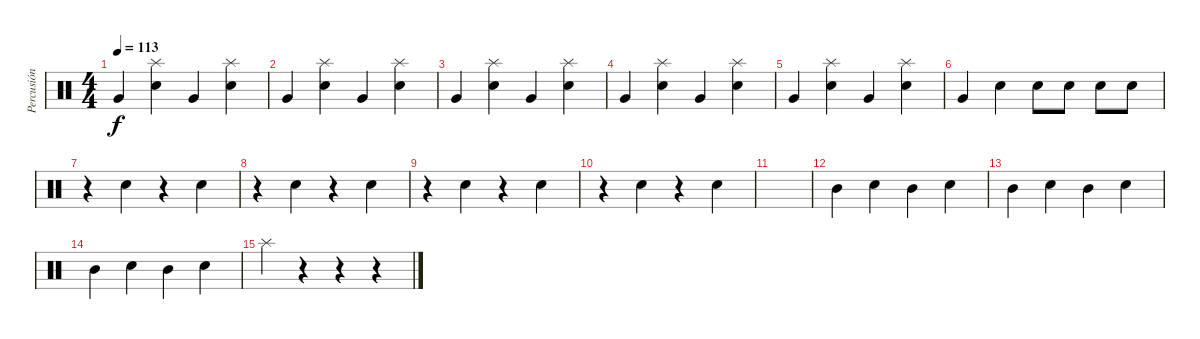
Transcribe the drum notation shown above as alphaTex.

\track ("Percusión" "Percusión") {instrument percussion}
\staff {score}
\articulation defaults
\ts (4 4)
\tempo 113
\clef neutral
\ks c "Very Low Tom (hit)".4{dy f}
("Snare (hit) 2" "Splash (hit)").4 "Very Low Tom (hit)".4 ("Snare (hit) 2" "Splash (hit)").4 |
"Very Low Tom (hit)".4 ("Snare (hit) 2" "Splash (hit)").4 "Very Low Tom (hit)".4 ("Snare (hit) 2" "Splash (hit)").4 |
"Very Low Tom (hit)".4 ("Snare (hit) 2" "Splash (hit)").4 "Very Low Tom (hit)".4 ("Snare (hit) 2" "Splash (hit)").4 |
"Very Low Tom (hit)".4 ("Snare (hit) 2" "Splash (hit)").4 "Very Low Tom (hit)".4 ("Snare (hit) 2" "Splash (hit)").4 |
"Very Low Tom (hit)".4 ("Snare (hit) 2" "Splash (hit)").4 "Very Low Tom (hit)".4 ("Snare (hit) 2" "Splash (hit)").4 |
"Very Low Tom (hit)".4 "Snare (hit) 2".4 "Snare (hit) 2".8 "Snare (hit) 2".8 "Snare (hit) 2".8 "Snare (hit) 2".8 |
r.4 "Snare (hit) 2".4 r.4 "Snare (hit) 2".4 |
r.4 "Snare (hit) 2".4 r.4 "Snare (hit) 2".4 |
r.4 "Snare (hit) 2".4 r.4 "Snare (hit) 2".4 |
r.4 "Snare (hit) 2".4 r.4 "Snare (hit) 2".4 |
|
"Mid Tom (hit)".4 "Snare (hit) 2".4 "Mid Tom (hit)".4 "Snare (hit) 2".4 |
"Mid Tom (hit)".4 "Snare (hit) 2".4 "Mid Tom (hit)".4 "Snare (hit) 2".4 |
"Mid Tom (hit)".4 "Snare (hit) 2".4 "Mid Tom (hit)".4 "Snare (hit) 2".4 |
"Splash (hit)".4 r.4 r.4 r.4
